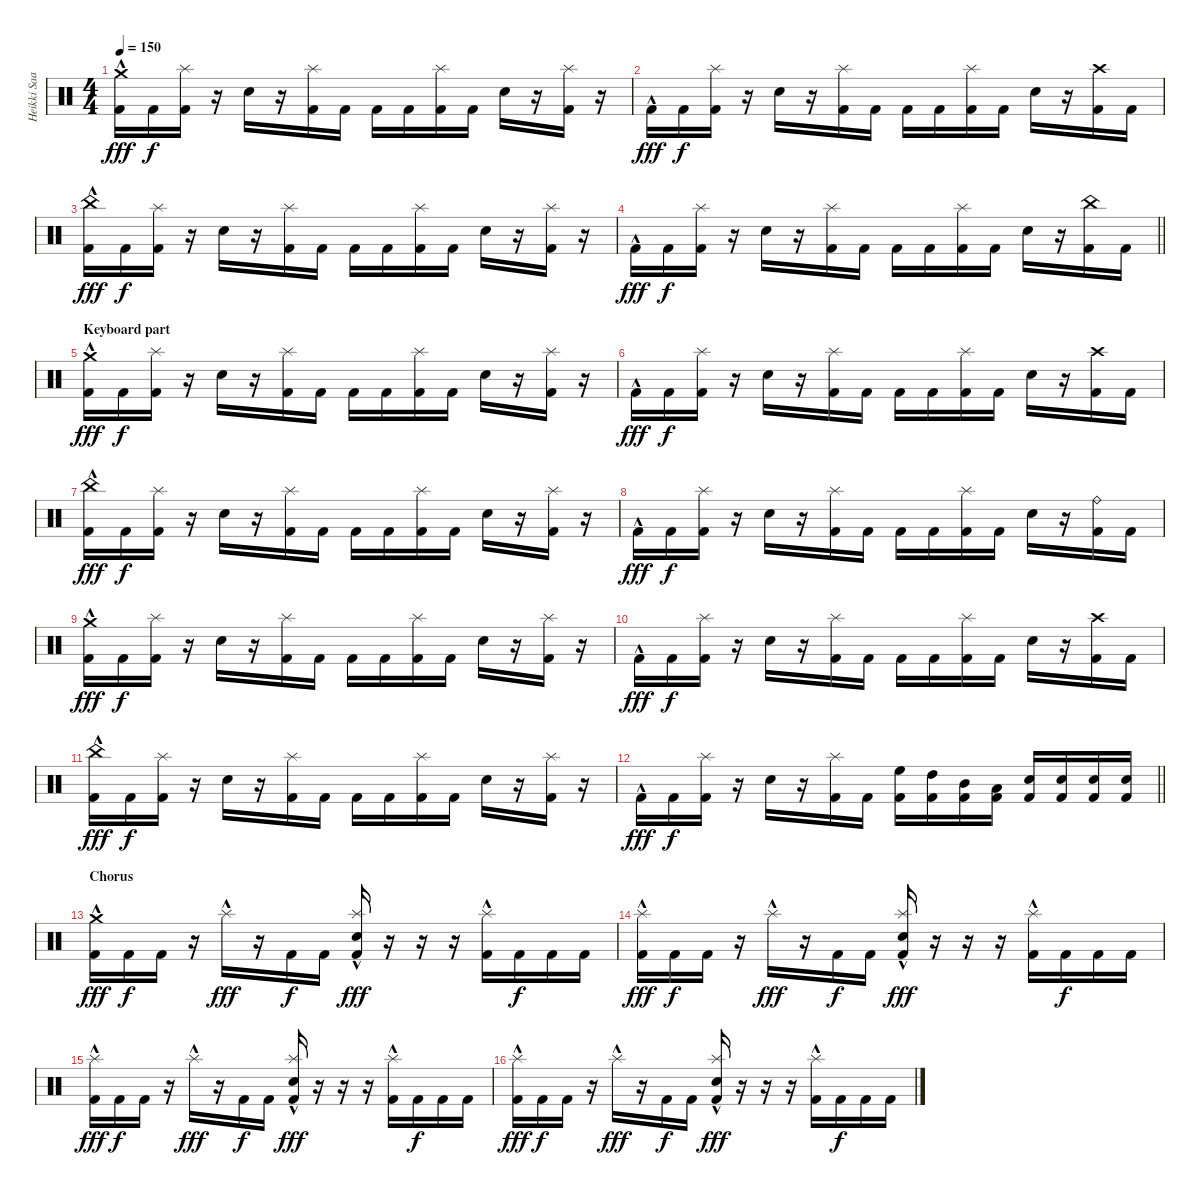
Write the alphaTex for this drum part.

\track ("Heikki Saari" "Heikki Saa") {instrument percussion}
\staff {score}
\articulation defaults
\ts (4 4)
\tempo 150
\clef neutral
\ks c
("Crash medium (hit)"{hac} "Kick (hit) 2").16{dy fff} "Kick (hit) 2".16{dy f} ("Kick (hit) 2" "Splash (hit)").16 r.16 "Electric Snare (hit)".16 r.16 ("Kick (hit) 2" "Splash (hit)").16 "Kick (hit) 2".16 "Kick (hit) 2".16 "Kick (hit) 2".16 ("Kick (hit) 2" "Splash (hit)").16 "Kick (hit) 2".16 "Electric Snare (hit)".16 r.16 ("Kick (hit) 2" "Splash (hit)").16 r.16 |
"Kick (hit) 2"{hac}.16{dy fff} "Kick (hit) 2".16{dy f} ("Kick (hit) 2" "Splash (hit)").16 r.16 "Electric Snare (hit)".16 r.16 ("Kick (hit) 2" "Splash (hit)").16 "Kick (hit) 2".16 "Kick (hit) 2".16 "Kick (hit) 2".16 ("Kick (hit) 2" "Splash (hit)").16 "Kick (hit) 2".16 "Electric Snare (hit)".16 r.16 ("Kick (hit) 2" "Crash high (hit)").16 "Kick (hit) 2".16 |
("Kick (hit) 2"{hac} "China (hit)").16{dy fff} "Kick (hit) 2".16{dy f} ("Kick (hit) 2" "Splash (hit)").16 r.16 "Electric Snare (hit)".16 r.16 ("Kick (hit) 2" "Splash (hit)").16 "Kick (hit) 2".16 "Kick (hit) 2".16 "Kick (hit) 2".16 ("Kick (hit) 2" "Splash (hit)").16 "Kick (hit) 2".16 "Electric Snare (hit)".16 r.16 ("Kick (hit) 2" "Splash (hit)").16 r.16 |
\barLineRight lightlight "Kick (hit) 2"{hac}.16{dy fff} "Kick (hit) 2".16{dy f}
("Kick (hit) 2" "Splash (hit)").16 r.16 "Electric Snare (hit)".16 r.16 ("Kick (hit) 2" "Splash (hit)").16 "Kick (hit) 2".16 "Kick (hit) 2".16 "Kick (hit) 2".16 ("Kick (hit) 2" "Splash (hit)").16 "Kick (hit) 2".16 "Electric Snare (hit)".16 r.16 ("Kick (hit) 2" "China (hit)").16 "Kick (hit) 2".16 |
\section ("" "Keyboard part")
("Crash medium (hit)"{hac} "Kick (hit) 2").16{dy fff} "Kick (hit) 2".16{dy f} ("Kick (hit) 2" "Splash (hit)").16 r.16 "Electric Snare (hit)".16 r.16 ("Kick (hit) 2" "Splash (hit)").16 "Kick (hit) 2".16 "Kick (hit) 2".16 "Kick (hit) 2".16 ("Kick (hit) 2" "Splash (hit)").16 "Kick (hit) 2".16 "Electric Snare (hit)".16 r.16 ("Kick (hit) 2" "Splash (hit)").16 r.16 |
"Kick (hit) 2"{hac}.16{dy fff} "Kick (hit) 2".16{dy f} ("Kick (hit) 2" "Splash (hit)").16 r.16 "Electric Snare (hit)".16 r.16 ("Kick (hit) 2" "Splash (hit)").16 "Kick (hit) 2".16 "Kick (hit) 2".16 "Kick (hit) 2".16 ("Kick (hit) 2" "Splash (hit)").16 "Kick (hit) 2".16 "Electric Snare (hit)".16 r.16 ("Kick (hit) 2" "Crash high (hit)").16 "Kick (hit) 2".16 |
("Kick (hit) 2"{hac} "China (hit)").16{dy fff} "Kick (hit) 2".16{dy f} ("Kick (hit) 2" "Splash (hit)").16 r.16 "Electric Snare (hit)".16 r.16 ("Kick (hit) 2" "Splash (hit)").16 "Kick (hit) 2".16 "Kick (hit) 2".16 "Kick (hit) 2".16 ("Kick (hit) 2" "Splash (hit)").16 "Kick (hit) 2".16 "Electric Snare (hit)".16 r.16 ("Kick (hit) 2" "Splash (hit)").16 r.16 |
"Kick (hit) 2"{hac}.16{dy fff} "Kick (hit) 2".16{dy f} ("Kick (hit) 2" "Splash (hit)").16 r.16 "Electric Snare (hit)".16 r.16 ("Kick (hit) 2" "Splash (hit)").16 "Kick (hit) 2".16 "Kick (hit) 2".16 "Kick (hit) 2".16 ("Kick (hit) 2" "Splash (hit)").16 "Kick (hit) 2".16 "Electric Snare (hit)".16 r.16 ("Kick (hit) 2" "Ride (bell)").16 "Kick (hit) 2".16 |
("Crash medium (hit)"{hac} "Kick (hit) 2").16{dy fff} "Kick (hit) 2".16{dy f} ("Kick (hit) 2" "Splash (hit)").16 r.16 "Electric Snare (hit)".16 r.16 ("Kick (hit) 2" "Splash (hit)").16 "Kick (hit) 2".16 "Kick (hit) 2".16 "Kick (hit) 2".16 ("Kick (hit) 2" "Splash (hit)").16 "Kick (hit) 2".16 "Electric Snare (hit)".16 r.16 ("Kick (hit) 2" "Splash (hit)").16 r.16 |
"Kick (hit) 2"{hac}.16{dy fff} "Kick (hit) 2".16{dy f} ("Kick (hit) 2" "Splash (hit)").16 r.16 "Electric Snare (hit)".16 r.16 ("Kick (hit) 2" "Splash (hit)").16 "Kick (hit) 2".16 "Kick (hit) 2".16 "Kick (hit) 2".16 ("Kick (hit) 2" "Splash (hit)").16 "Kick (hit) 2".16 "Electric Snare (hit)".16 r.16 ("Kick (hit) 2" "Crash high (hit)").16 "Kick (hit) 2".16 |
("Kick (hit) 2"{hac} "China (hit)").16{dy fff} "Kick (hit) 2".16{dy f} ("Kick (hit) 2" "Splash (hit)").16 r.16 "Electric Snare (hit)".16 r.16 ("Kick (hit) 2" "Splash (hit)").16 "Kick (hit) 2".16 "Kick (hit) 2".16 "Kick (hit) 2".16 ("Kick (hit) 2" "Splash (hit)").16 "Kick (hit) 2".16 "Electric Snare (hit)".16 r.16 ("Kick (hit) 2" "Splash (hit)").16 r.16 |
\barLineRight lightlight "Kick (hit) 2"{hac}.16{dy fff} "Kick (hit) 2".16{dy f}
("Kick (hit) 2" "Splash (hit)").16 r.16 "Electric Snare (hit)".16 r.16 ("Kick (hit) 2" "Splash (hit)").16 "Kick (hit) 2".16 ("Kick (hit) 2" "High Floor Tom (hit)").16 ("Kick (hit) 2" "High Tom (hit)").16 ("Kick (hit) 2" "Mid Tom (hit)").16 ("Kick (hit) 2" "Low Tom (hit)").16 ("Kick (hit) 2" "Electric Snare (hit)").16 ("Kick (hit) 2" "Electric Snare (hit)").16 ("Kick (hit) 2" "Electric Snare (hit)").16 ("Kick (hit) 2" "Electric Snare (hit)").16 |
\section ("" "Chorus")
("Crash medium (hit)"{hac} "Kick (hit) 2").16{dy fff} "Kick (hit) 2".16{dy f} "Kick (hit) 2".16 r.16 "Splash (hit)"{hac}.16{dy fff} r.16 "Kick (hit) 2".16{dy f} "Kick (hit) 2".16 ("Splash (hit)"{hac} "Electric Snare (hit)" "Kick (hit) 2").16{dy fff} r.16 r.16 r.16 ("Splash (hit)"{hac} "Kick (hit) 2").16 "Kick (hit) 2".16{dy f} "Kick (hit) 2".16 "Kick (hit) 2".16 |
("Splash (hit)"{hac} "Kick (hit) 2").16{dy fff} "Kick (hit) 2".16{dy f} "Kick (hit) 2".16 r.16 "Splash (hit)"{hac}.16{dy fff} r.16 "Kick (hit) 2".16{dy f} "Kick (hit) 2".16 ("Splash (hit)"{hac} "Electric Snare (hit)" "Kick (hit) 2").16{dy fff} r.16 r.16 r.16 ("Splash (hit)"{hac} "Kick (hit) 2").16 "Kick (hit) 2".16{dy f} "Kick (hit) 2".16 "Kick (hit) 2".16 |
("Splash (hit)"{hac} "Kick (hit) 2").16{dy fff} "Kick (hit) 2".16{dy f} "Kick (hit) 2".16 r.16 "Splash (hit)"{hac}.16{dy fff} r.16 "Kick (hit) 2".16{dy f} "Kick (hit) 2".16 ("Splash (hit)"{hac} "Electric Snare (hit)" "Kick (hit) 2").16{dy fff} r.16 r.16 r.16 ("Splash (hit)"{hac} "Kick (hit) 2").16 "Kick (hit) 2".16{dy f} "Kick (hit) 2".16 "Kick (hit) 2".16 |
("Splash (hit)"{hac} "Kick (hit) 2").16{dy fff} "Kick (hit) 2".16{dy f} "Kick (hit) 2".16 r.16 "Splash (hit)"{hac}.16{dy fff} r.16 "Kick (hit) 2".16{dy f} "Kick (hit) 2".16 ("Splash (hit)"{hac} "Electric Snare (hit)" "Kick (hit) 2").16{dy fff} r.16 r.16 r.16 ("Splash (hit)"{hac} "Kick (hit) 2").16 "Kick (hit) 2".16{dy f} "Kick (hit) 2".16 "Kick (hit) 2".16
